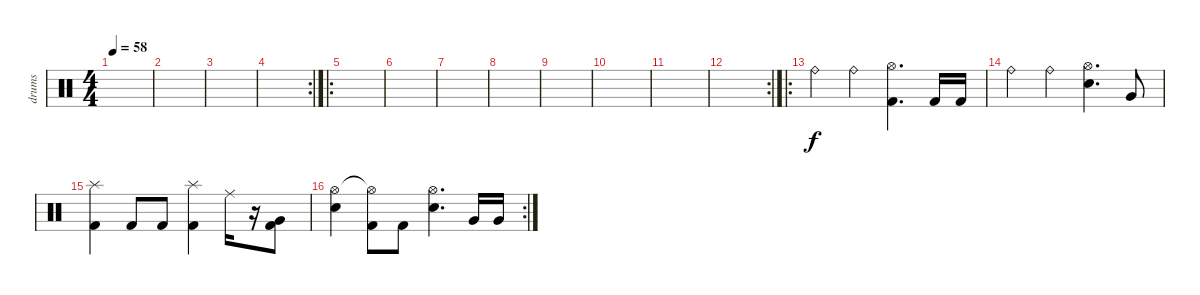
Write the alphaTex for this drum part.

\track ("drums" "drums") {instrument percussion}
\staff {score}
\articulation defaults
\ts (4 4)
\tempo 58
\clef neutral
\ks c
|
|
|
\rc 2
|
\ro
|
|
|
|
|
|
|
\rc 2
|
\ro "Ride (bell)".4 "Ride (bell)".4
("Hi-Hat (open)" "Kick (hit) 2").4{d} "Kick (hit) 2".16 "Kick (hit) 2".16 |
"Ride (bell)".4 "Ride (bell)".4 ("Hi-Hat (open)" "Snare (hit) 2").4{d} "Very Low Tom (hit)".8 |
("Kick (hit) 2" "Splash (hit)").4 "Kick (hit) 2".8 "Kick (hit) 2".8 ("Kick (hit) 2" "Splash (hit)").4 "Ride (middle)".16 r.16 ("Kick (hit) 2" "Very Low Tom (hit)").8 |
\rc 2
("Hi-Hat (open)" "Snare (hit) 2").4 ("Hi-Hat (open)"{t} "Kick (hit) 2").8 "Kick (hit) 2".8 ("Hi-Hat (open)" "Snare (hit) 2").4{d} "Very Low Tom (hit)".16 "Very Low Tom (hit)".16
